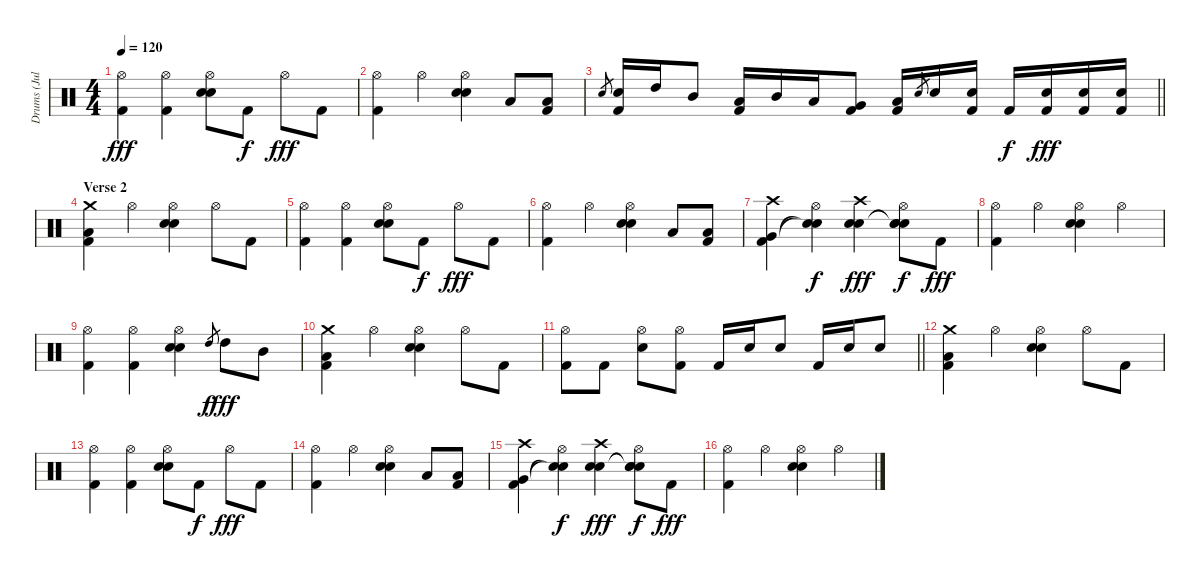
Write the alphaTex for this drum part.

\track ("Drums (Julian Del Rosario)" "Drums (Jul") {instrument percussion}
\staff {score}
\articulation defaults
\ts (4 4)
\tempo 120
\clef neutral
\ks c
("Hi-Hat (open)" "Kick (hit) 2").4{dy fff} ("Hi-Hat (open)" "Kick (hit) 2").4 ("Hi-Hat (open)" "Snare (hit) 2" "Electric Snare (hit)").8 "Kick (hit) 2".8{dy f} "Hi-Hat (open)".8{dy fff} "Kick (hit) 2".8 |
("Hi-Hat (open)" "Kick (hit) 2").4 "Hi-Hat (open)".4 ("Hi-Hat (open)" "Snare (hit) 2" "Electric Snare (hit)").4 "Low Floor Tom (hit)".8 ("Low Floor Tom (hit)" "Kick (hit) 2").8 |
\barLineRight lightlight "Snare (hit) 2".8{gr}
("Snare (hit) 2" "Kick (hit) 2").16 "High Tom (hit)".16 "Mid Tom (hit)".8 ("Low Tom (hit)" "Kick (hit) 2").16 "Mid Tom (hit)".16 "Low Tom (hit)".16 ("Very Low Tom (hit)" "Kick (hit) 2").8 ("Low Floor Tom (hit)" "Kick (hit) 2").16 "Snare (hit) 2".8{gr} "Snare (hit) 2".16 ("Snare (hit) 2" "Kick (hit) 2").16 "Kick (hit) 2".16{dy f} ("Snare (hit) 2" "Kick (hit) 2").16{dy fff} ("Snare (hit) 2" "Kick (hit) 2").16 ("Snare (hit) 2" "Kick (hit) 2").16 |
\section ("" "Verse 2")
("Crash medium (hit)" "Low Floor Tom (hit)" "Kick (hit) 2").4 "Hi-Hat (open)".4 ("Hi-Hat (open)" "Snare (hit) 2" "Electric Snare (hit)").4 "Hi-Hat (open)".8 "Kick (hit) 2".8 |
("Hi-Hat (open)" "Kick (hit) 2").4 ("Hi-Hat (open)" "Kick (hit) 2").4 ("Hi-Hat (open)" "Snare (hit) 2" "Electric Snare (hit)").8 "Kick (hit) 2".8{dy f} "Hi-Hat (open)".8{dy fff} "Kick (hit) 2".8 |
("Hi-Hat (open)" "Kick (hit) 2").4 "Hi-Hat (open)".4 ("Hi-Hat (open)" "Snare (hit) 2" "Electric Snare (hit)").4 "Low Floor Tom (hit)".8 ("Low Floor Tom (hit)" "Kick (hit) 2").8 |
("Crash high (hit)" "Very Low Tom (hit)" "Kick (hit) 2").4 ("Hi-Hat (open)" "Snare (hit)"{t} "Snare (hit)"{t}).4{dy f} ("Crash high (hit)" "Snare (hit) 2" "Electric Snare (hit)").4{dy fff} ("Hi-Hat (open)" "Snare (hit)"{t} "Snare (hit)"{t} "Snare (hit)").8{dy f} "Kick (hit) 2".8{dy fff} |
("Hi-Hat (open)" "Kick (hit) 2").4 "Hi-Hat (open)".4 ("Hi-Hat (open)" "Snare (hit) 2" "Electric Snare (hit)").4 "Hi-Hat (open)".4 |
("Hi-Hat (open)" "Kick (hit) 2").4 ("Hi-Hat (open)" "Kick (hit) 2").4 ("Hi-Hat (open)" "Snare (hit) 2" "Electric Snare (hit)").4 "High Tom (hit)".8{gr dy f} "High Tom (hit)".8{dy fff} "Mid Tom (hit)".8 |
("Crash medium (hit)" "Low Floor Tom (hit)" "Kick (hit) 2").4 "Hi-Hat (open)".4 ("Hi-Hat (open)" "Snare (hit) 2" "Electric Snare (hit)").4 "Hi-Hat (open)".8 "Kick (hit) 2".8 |
\barLineRight lightlight
("Hi-Hat (open)" "Kick (hit) 2").8 "Kick (hit) 2".8 ("Hi-Hat (open)" "Snare (hit) 2").8 ("Hi-Hat (open)" "Kick (hit) 2").8 "Kick (hit) 2".16 "Snare (hit) 2".16 "Snare (hit) 2".8 "Kick (hit) 2".16 "Snare (hit) 2".16 "Snare (hit) 2".8 |
("Crash medium (hit)" "Low Floor Tom (hit)" "Kick (hit) 2").4 "Hi-Hat (open)".4 ("Hi-Hat (open)" "Snare (hit) 2" "Electric Snare (hit)").4 "Hi-Hat (open)".8 "Kick (hit) 2".8 |
("Hi-Hat (open)" "Kick (hit) 2").4 ("Hi-Hat (open)" "Kick (hit) 2").4 ("Hi-Hat (open)" "Snare (hit) 2" "Electric Snare (hit)").8 "Kick (hit) 2".8{dy f} "Hi-Hat (open)".8{dy fff} "Kick (hit) 2".8 |
("Hi-Hat (open)" "Kick (hit) 2").4 "Hi-Hat (open)".4 ("Hi-Hat (open)" "Snare (hit) 2" "Electric Snare (hit)").4 "Low Floor Tom (hit)".8 ("Low Floor Tom (hit)" "Kick (hit) 2").8 |
("Crash high (hit)" "Very Low Tom (hit)" "Kick (hit) 2").4 ("Hi-Hat (open)" "Snare (hit)"{t} "Snare (hit)"{t}).4{dy f} ("Crash high (hit)" "Snare (hit) 2" "Electric Snare (hit)").4{dy fff} ("Hi-Hat (open)" "Snare (hit)"{t} "Snare (hit)"{t} "Snare (hit)").8{dy f} "Kick (hit) 2".8{dy fff} |
("Hi-Hat (open)" "Kick (hit) 2").4 "Hi-Hat (open)".4 ("Hi-Hat (open)" "Snare (hit) 2" "Electric Snare (hit)").4 "Hi-Hat (open)".4
